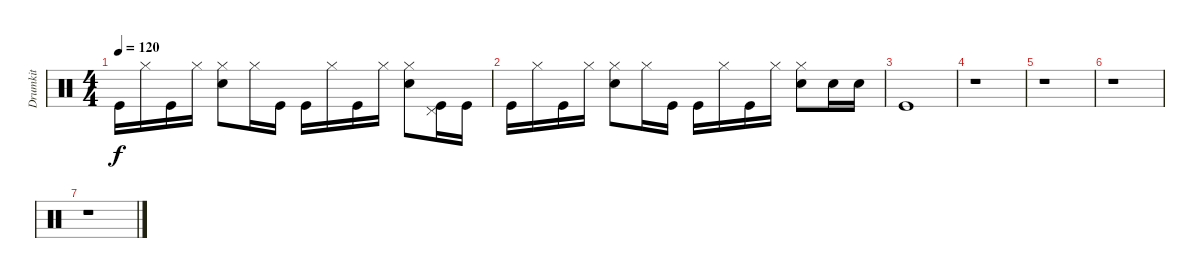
\track ("Drumkit" "Drumkit") {instrument percussion}
\staff {score}
\articulation defaults
\ts (4 4)
\tempo 120
\clef neutral
\ks c "Kick (hit)".16{dy f} "Hi-Hat (closed)".16 "Kick (hit)".16 "Hi-Hat (closed)".16
("Hi-Hat (closed)" "Snare (hit) 2").8 "Hi-Hat (closed)".16 "Kick (hit)".16 "Kick (hit)".16 "Hi-Hat (closed)".16 "Kick (hit)".16 "Hi-Hat (closed)".16 ("Hi-Hat (closed)" "Snare (hit) 2").8 ("Pedal Hi-Hat (hit)" "Kick (hit)").16 "Kick (hit)".16 |
"Kick (hit)".16 "Hi-Hat (closed)".16 "Kick (hit)".16 "Hi-Hat (closed)".16 ("Hi-Hat (closed)" "Snare (hit) 2").8 "Hi-Hat (closed)".16 "Kick (hit)".16 "Kick (hit)".16 "Hi-Hat (closed)".16 "Kick (hit)".16 "Hi-Hat (closed)".16 ("Hi-Hat (closed)" "Snare (hit) 2").8 "Snare (hit) 2".16 "Snare (hit) 2".16 |
"Kick (hit)".1 |
r.1 |
r.1 |
r.1 |
r.1
